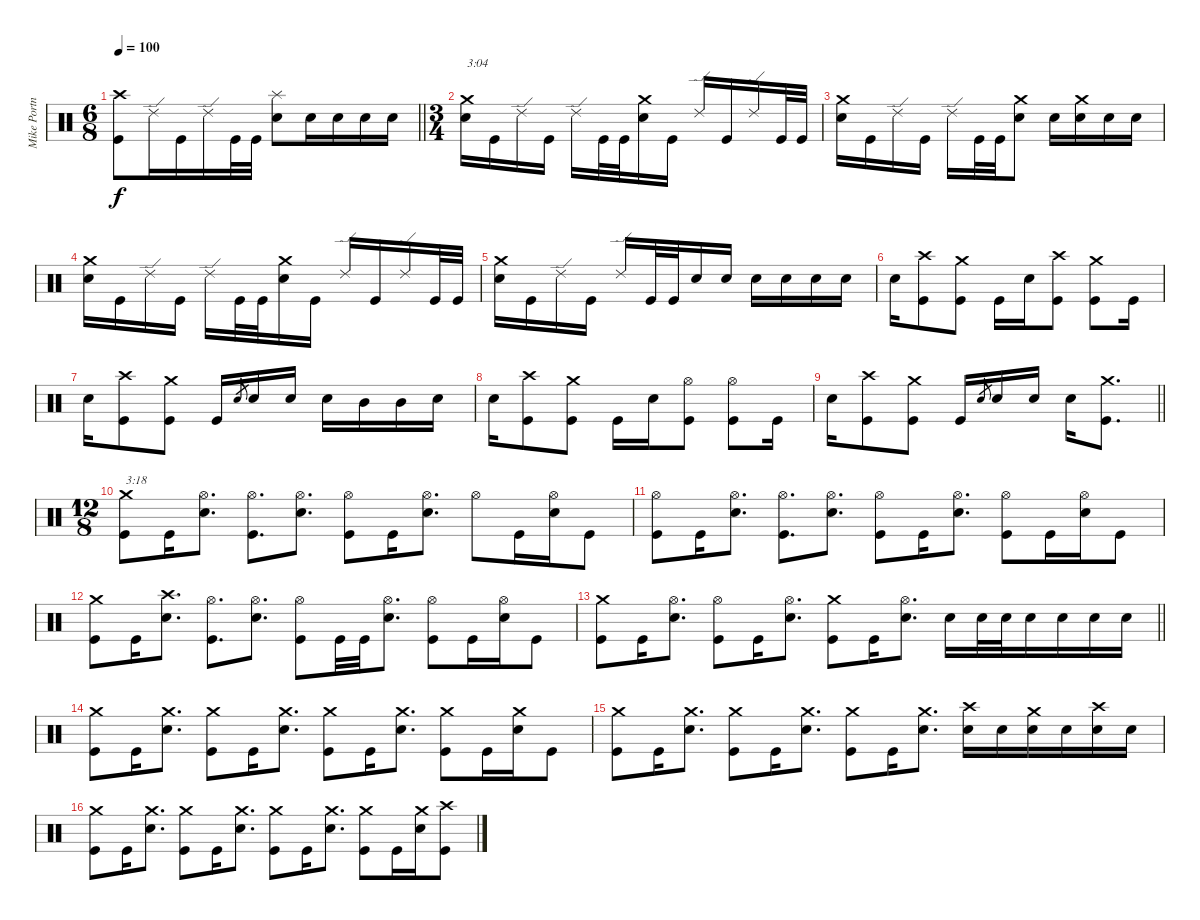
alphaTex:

\track ("Mike Portnoy" "Mike Portn") {instrument percussion}
\staff {score}
\articulation defaults
\ts (6 8)
\tempo 100
\clef neutral
\barLineRight lightlight
\ks c
("Crash high (hit)" "Kick (hit)").8{dy f} "Ride (edge) 2".16 "Kick (hit)".16 "Ride (edge) 2".16 "Kick (hit)".32 "Kick (hit)".32 ("Splash (hit)" "Snare (hit) 2").8 "Snare (hit) 2".16 "Snare (hit) 2".16 "Snare (hit) 2".16 "Snare (hit) 2".16 |
\ts (3 4)
\section ("" "")
("Crash medium (hit)" "Snare (hit) 2").16{txt "3:04"} "Kick (hit)".16 "Ride (edge) 2".16 "Kick (hit)".16 "Ride (edge) 2".16 "Kick (hit)".32 "Kick (hit)".32 ("Crash medium (hit)" "Snare (hit) 2").16 "Kick (hit)".16 "Ride (edge) 2".16 "Kick (hit)".16 "Ride (edge) 2".16 "Kick (hit)".32 "Kick (hit)".32 |
("Crash medium (hit)" "Snare (hit) 2").16 "Kick (hit)".16 "Ride (edge) 2".16 "Kick (hit)".16 "Ride (edge) 2".16 "Kick (hit)".32 "Kick (hit)".32 ("Crash medium (hit)" "Snare (hit) 2").8 "Snare (hit) 2".16 ("Crash medium (hit)" "Snare (hit) 2").16 "Snare (hit) 2".16 "Snare (hit) 2".16 |
("Crash medium (hit)" "Snare (hit) 2").16 "Kick (hit)".16 "Ride (edge) 2".16 "Kick (hit)".16 "Ride (edge) 2".16 "Kick (hit)".32 "Kick (hit)".32 ("Crash medium (hit)" "Snare (hit) 2").16 "Kick (hit)".16 "Ride (edge) 2".16 "Kick (hit)".16 "Ride (edge) 2".16 "Kick (hit)".32 "Kick (hit)".32 |
("Crash medium (hit)" "Snare (hit) 2").16 "Kick (hit)".16 "Ride (edge) 2".16 "Kick (hit)".16 "Ride (edge) 2".16 "Kick (hit)".32 "Kick (hit)".32 "Snare (hit) 2".16 "Snare (hit) 2".16 "Snare (hit) 2".16 "Snare (hit) 2".16 "Snare (hit) 2".16 "Snare (hit) 2".16 |
"Snare (hit) 2".16 ("Crash high (hit)" "Kick (hit)").8 ("Crash medium (hit)" "Kick (hit)").8 "Kick (hit)".16 "Snare (hit) 2".16 ("Crash high (hit)" "Kick (hit)").8 ("Crash medium (hit)" "Kick (hit)").8 "Kick (hit)".16 |
"Snare (hit) 2".16 ("Crash high (hit)" "Kick (hit)").8 ("Crash medium (hit)" "Kick (hit)").8 "Kick (hit)".16 "Snare (hit) 2".8{gr} "Snare (hit) 2".16 "Snare (hit) 2".16 "Snare (hit) 2".16 "Mid Tom (hit)".16 "Mid Tom (hit)".16 "Snare (hit) 2".16 |
"Snare (hit) 2".16 ("Crash high (hit)" "Kick (hit)").8 ("Crash medium (hit)" "Kick (hit)").8 "Kick (hit)".16 "Snare (hit) 2".16 ("Hi-Hat (open)" "Kick (hit)").8 ("Hi-Hat (open)" "Kick (hit)").8 "Kick (hit)".16 |
\barLineRight lightlight "Snare (hit) 2".16
("Crash high (hit)" "Kick (hit)").8 ("Crash medium (hit)" "Kick (hit)").8 "Kick (hit)".16 "Snare (hit) 2".8{gr} "Snare (hit) 2".16 "Snare (hit) 2".16 "Snare (hit) 2".16 ("Crash medium (hit)" "Kick (hit)").8{d} |
\ts (12 8)
\section ("" "")
("Crash medium (hit)" "Kick (hit)").8{txt "3:18"} "Kick (hit)".16 ("Hi-Hat (open)" "Snare (hit) 2").8{d} ("Hi-Hat (open)" "Kick (hit)").8{d} ("Hi-Hat (open)" "Snare (hit) 2").8{d} ("Hi-Hat (open)" "Kick (hit)").8 "Kick (hit)".16 ("Hi-Hat (open)" "Snare (hit) 2").8{d} "Hi-Hat (open)".8 "Kick (hit)".16 ("Hi-Hat (open)" "Snare (hit) 2").16 "Kick (hit)".8 |
("Hi-Hat (open)" "Kick (hit)").8 "Kick (hit)".16 ("Hi-Hat (open)" "Snare (hit) 2").8{d} ("Hi-Hat (open)" "Kick (hit)").8{d} ("Hi-Hat (open)" "Snare (hit) 2").8{d} ("Hi-Hat (open)" "Kick (hit)").8 "Kick (hit)".16 ("Hi-Hat (open)" "Snare (hit) 2").8{d} ("Hi-Hat (open)" "Kick (hit)").8 "Kick (hit)".16 ("Hi-Hat (open)" "Snare (hit) 2").16 "Kick (hit)".8 |
("Crash medium (hit)" "Kick (hit)").8 "Kick (hit)".16 ("Crash high (hit)" "Snare (hit) 2").8{d} ("Hi-Hat (open)" "Kick (hit)").8{d} ("Hi-Hat (open)" "Snare (hit) 2").8{d} ("Hi-Hat (open)" "Kick (hit)").8 "Kick (hit)".32 "Kick (hit)".32 ("Hi-Hat (open)" "Snare (hit) 2").8{d} ("Hi-Hat (open)" "Kick (hit)").8 "Kick (hit)".16 ("Hi-Hat (open)" "Snare (hit) 2").16 "Kick (hit)".8 |
\barLineRight lightlight
("Crash medium (hit)" "Kick (hit)").8 "Kick (hit)".16 ("Hi-Hat (open)" "Snare (hit) 2").8{d} ("Hi-Hat (open)" "Kick (hit)").8 "Kick (hit)".16 ("Hi-Hat (open)" "Snare (hit) 2").8{d} ("Crash medium (hit)" "Kick (hit)").8 "Kick (hit)".16 ("Hi-Hat (open)" "Snare (hit) 2").8{d} "Snare (hit) 2".16 "Snare (hit) 2".32 "Snare (hit) 2".32 "Snare (hit) 2".16 "Snare (hit) 2".16 "Snare (hit) 2".16 "Snare (hit) 2".16 |
\section ("" "")
("Crash medium (hit)" "Kick (hit)").8 "Kick (hit)".16 ("Crash medium (hit)" "Snare (hit) 2").8{d} ("Crash medium (hit)" "Kick (hit)").8 "Kick (hit)".16 ("Crash medium (hit)" "Snare (hit) 2").8{d} ("Crash medium (hit)" "Kick (hit)").8 "Kick (hit)".16 ("Crash medium (hit)" "Snare (hit) 2").8{d} ("Crash medium (hit)" "Kick (hit)").8 "Kick (hit)".16 ("Crash medium (hit)" "Snare (hit) 2").16 "Kick (hit)".8 |
("Crash medium (hit)" "Kick (hit)").8 "Kick (hit)".16 ("Crash medium (hit)" "Snare (hit) 2").8{d} ("Crash medium (hit)" "Kick (hit)").8 "Kick (hit)".16 ("Crash medium (hit)" "Snare (hit) 2").8{d} ("Crash medium (hit)" "Kick (hit)").8 "Kick (hit)".16 ("Crash medium (hit)" "Snare (hit) 2").8{d} ("Crash high (hit)" "Snare (hit) 2").16 "Snare (hit) 2".16 ("Crash medium (hit)" "Snare (hit) 2").16 "Snare (hit) 2".16 ("Crash high (hit)" "Snare (hit) 2").16 "Snare (hit) 2".16 |
("Crash medium (hit)" "Kick (hit)").8 "Kick (hit)".16 ("Crash medium (hit)" "Snare (hit) 2").8{d} ("Crash medium (hit)" "Kick (hit)").8 "Kick (hit)".16 ("Crash medium (hit)" "Snare (hit) 2").8{d} ("Crash medium (hit)" "Kick (hit)").8 "Kick (hit)".16 ("Crash medium (hit)" "Snare (hit) 2").8{d} ("Crash medium (hit)" "Kick (hit)").8 "Kick (hit)".16 ("Crash medium (hit)" "Snare (hit) 2").16 ("Crash high (hit)" "Kick (hit)").8
